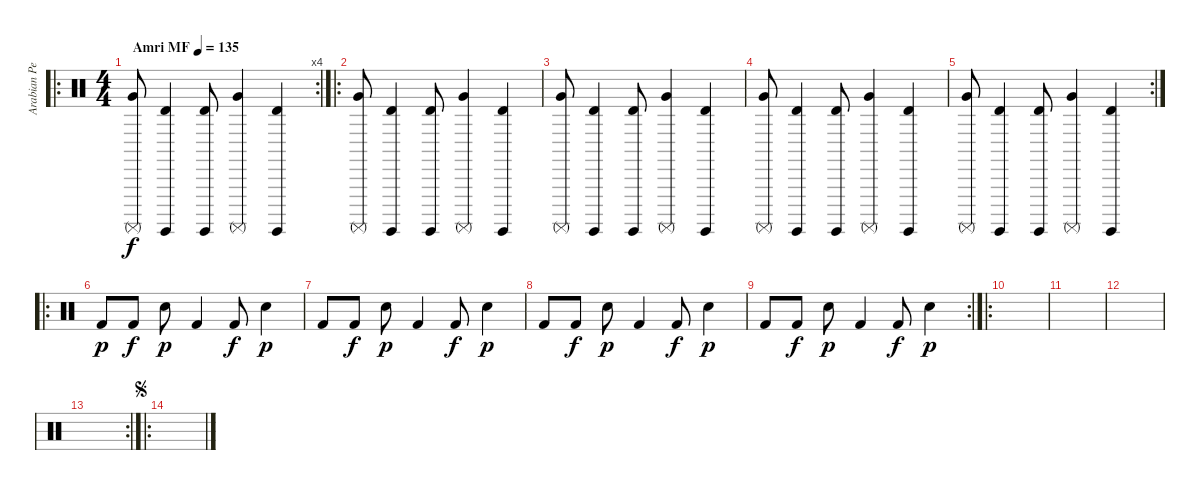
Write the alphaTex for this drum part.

\track ("Arabian Perc" "Arabian Pe") {instrument percussion}
\staff {score}
\articulation defaults
\ro
\rc 4
\ts (4 4)
\tempo (135 "Amri MF")
\clef neutral
\ks c
("Surdo (mute)" "Very Low Tom (hit)").8{dy f} ("Surdo (hit)" "Timbale high (hit)").4 ("Timbale high (hit)" "Surdo (hit)").8 ("Surdo (mute)" "Very Low Tom (hit)").4 ("Surdo (hit)" "Timbale high (hit)").4 |
\ro
("Surdo (mute)" "Very Low Tom (hit)").8 ("Surdo (hit)" "Timbale high (hit)").4 ("Timbale high (hit)" "Surdo (hit)").8 ("Surdo (mute)" "Very Low Tom (hit)").4 ("Surdo (hit)" "Timbale high (hit)").4 |
("Surdo (mute)" "Very Low Tom (hit)").8 ("Surdo (hit)" "Timbale high (hit)").4 ("Timbale high (hit)" "Surdo (hit)").8 ("Surdo (mute)" "Very Low Tom (hit)").4 ("Surdo (hit)" "Timbale high (hit)").4 |
("Surdo (mute)" "Very Low Tom (hit)").8 ("Surdo (hit)" "Timbale high (hit)").4 ("Timbale high (hit)" "Surdo (hit)").8 ("Surdo (mute)" "Very Low Tom (hit)").4 ("Surdo (hit)" "Timbale high (hit)").4 |
\rc 2
("Surdo (mute)" "Very Low Tom (hit)").8 ("Surdo (hit)" "Timbale high (hit)").4 ("Timbale high (hit)" "Surdo (hit)").8 ("Surdo (mute)" "Very Low Tom (hit)").4 ("Surdo (hit)" "Timbale high (hit)").4 |
\ro "Kick (hit) 2".8{dy p} "Kick (hit) 2".8{dy f} "Electric Snare (hit)".8{dy p} "Kick (hit) 2".4 "Kick (hit) 2".8{dy f} "Electric Snare (hit)".4{dy p}
|
"Kick (hit) 2".8 "Kick (hit) 2".8{dy f} "Electric Snare (hit)".8{dy p} "Kick (hit) 2".4 "Kick (hit) 2".8{dy f} "Electric Snare (hit)".4{dy p} |
"Kick (hit) 2".8 "Kick (hit) 2".8{dy f} "Electric Snare (hit)".8{dy p} "Kick (hit) 2".4 "Kick (hit) 2".8{dy f} "Electric Snare (hit)".4{dy p} |
\rc 2 "Kick (hit) 2".8 "Kick (hit) 2".8{dy f} "Electric Snare (hit)".8{dy p} "Kick (hit) 2".4 "Kick (hit) 2".8{dy f} "Electric Snare (hit)".4{dy p}
|
\ro
|
|
|
\rc 2
|
\ro
\jump segno
